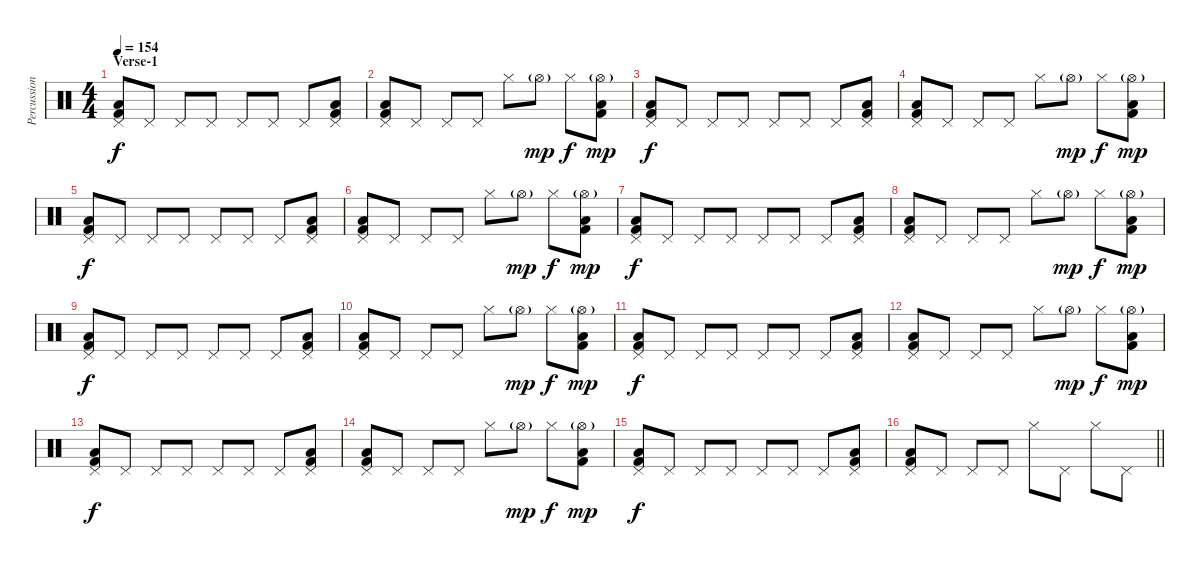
\track ("Percussion" "Percussion") {instrument percussion}
\staff {score}
\articulation defaults
\ts (4 4)
\section ("" "Verse-1")
\tempo 154
\clef neutral
\ks c
("Pedal Hi-Hat (hit)" "Low Floor Tom (hit)" "Kick (hit) 2").8{dy f} "Pedal Hi-Hat (hit)".8 "Pedal Hi-Hat (hit)".8 "Pedal Hi-Hat (hit)".8 "Pedal Hi-Hat (hit)".8 "Pedal Hi-Hat (hit)".8 "Pedal Hi-Hat (hit)".8 ("Pedal Hi-Hat (hit)" "Low Floor Tom (hit)" "Kick (hit) 2").8 |
("Pedal Hi-Hat (hit)" "Low Floor Tom (hit)" "Kick (hit) 2").8 "Pedal Hi-Hat (hit)".8 "Pedal Hi-Hat (hit)".8 "Pedal Hi-Hat (hit)".8 "Hi-Hat (closed)".8 "Hi-Hat (open)"{g}.8{dy mp} "Hi-Hat (closed)".8{dy f} ("Hi-Hat (open)"{g} "Low Floor Tom (hit)" "Kick (hit) 2").8{dy mp} |
("Pedal Hi-Hat (hit)" "Low Floor Tom (hit)" "Kick (hit) 2").8{dy f} "Pedal Hi-Hat (hit)".8 "Pedal Hi-Hat (hit)".8 "Pedal Hi-Hat (hit)".8 "Pedal Hi-Hat (hit)".8 "Pedal Hi-Hat (hit)".8 "Pedal Hi-Hat (hit)".8 ("Pedal Hi-Hat (hit)" "Low Floor Tom (hit)" "Kick (hit) 2").8 |
("Pedal Hi-Hat (hit)" "Low Floor Tom (hit)" "Kick (hit) 2").8 "Pedal Hi-Hat (hit)".8 "Pedal Hi-Hat (hit)".8 "Pedal Hi-Hat (hit)".8 "Hi-Hat (closed)".8 "Hi-Hat (open)"{g}.8{dy mp} "Hi-Hat (closed)".8{dy f} ("Hi-Hat (open)"{g} "Low Floor Tom (hit)" "Kick (hit) 2").8{dy mp} |
("Pedal Hi-Hat (hit)" "Low Floor Tom (hit)" "Kick (hit) 2").8{dy f} "Pedal Hi-Hat (hit)".8 "Pedal Hi-Hat (hit)".8 "Pedal Hi-Hat (hit)".8 "Pedal Hi-Hat (hit)".8 "Pedal Hi-Hat (hit)".8 "Pedal Hi-Hat (hit)".8 ("Pedal Hi-Hat (hit)" "Low Floor Tom (hit)" "Kick (hit) 2").8 |
("Pedal Hi-Hat (hit)" "Low Floor Tom (hit)" "Kick (hit) 2").8 "Pedal Hi-Hat (hit)".8 "Pedal Hi-Hat (hit)".8 "Pedal Hi-Hat (hit)".8 "Hi-Hat (closed)".8 "Hi-Hat (open)"{g}.8{dy mp} "Hi-Hat (closed)".8{dy f} ("Hi-Hat (open)"{g} "Low Floor Tom (hit)" "Kick (hit) 2").8{dy mp} |
("Pedal Hi-Hat (hit)" "Low Floor Tom (hit)" "Kick (hit) 2").8{dy f} "Pedal Hi-Hat (hit)".8 "Pedal Hi-Hat (hit)".8 "Pedal Hi-Hat (hit)".8 "Pedal Hi-Hat (hit)".8 "Pedal Hi-Hat (hit)".8 "Pedal Hi-Hat (hit)".8 ("Pedal Hi-Hat (hit)" "Low Floor Tom (hit)" "Kick (hit) 2").8 |
("Pedal Hi-Hat (hit)" "Low Floor Tom (hit)" "Kick (hit) 2").8 "Pedal Hi-Hat (hit)".8 "Pedal Hi-Hat (hit)".8 "Pedal Hi-Hat (hit)".8 "Hi-Hat (closed)".8 "Hi-Hat (open)"{g}.8{dy mp} "Hi-Hat (closed)".8{dy f} ("Hi-Hat (open)"{g} "Low Floor Tom (hit)" "Kick (hit) 2").8{dy mp} |
("Pedal Hi-Hat (hit)" "Low Floor Tom (hit)" "Kick (hit) 2").8{dy f} "Pedal Hi-Hat (hit)".8 "Pedal Hi-Hat (hit)".8 "Pedal Hi-Hat (hit)".8 "Pedal Hi-Hat (hit)".8 "Pedal Hi-Hat (hit)".8 "Pedal Hi-Hat (hit)".8 ("Pedal Hi-Hat (hit)" "Low Floor Tom (hit)" "Kick (hit) 2").8 |
("Pedal Hi-Hat (hit)" "Low Floor Tom (hit)" "Kick (hit) 2").8 "Pedal Hi-Hat (hit)".8 "Pedal Hi-Hat (hit)".8 "Pedal Hi-Hat (hit)".8 "Hi-Hat (closed)".8 "Hi-Hat (open)"{g}.8{dy mp} "Hi-Hat (closed)".8{dy f} ("Hi-Hat (open)"{g} "Low Floor Tom (hit)" "Kick (hit) 2").8{dy mp} |
("Pedal Hi-Hat (hit)" "Low Floor Tom (hit)" "Kick (hit) 2").8{dy f} "Pedal Hi-Hat (hit)".8 "Pedal Hi-Hat (hit)".8 "Pedal Hi-Hat (hit)".8 "Pedal Hi-Hat (hit)".8 "Pedal Hi-Hat (hit)".8 "Pedal Hi-Hat (hit)".8 ("Pedal Hi-Hat (hit)" "Low Floor Tom (hit)" "Kick (hit) 2").8 |
("Pedal Hi-Hat (hit)" "Low Floor Tom (hit)" "Kick (hit) 2").8 "Pedal Hi-Hat (hit)".8 "Pedal Hi-Hat (hit)".8 "Pedal Hi-Hat (hit)".8 "Hi-Hat (closed)".8 "Hi-Hat (open)"{g}.8{dy mp} "Hi-Hat (closed)".8{dy f} ("Hi-Hat (open)"{g} "Low Floor Tom (hit)" "Kick (hit) 2").8{dy mp} |
("Pedal Hi-Hat (hit)" "Low Floor Tom (hit)" "Kick (hit) 2").8{dy f} "Pedal Hi-Hat (hit)".8 "Pedal Hi-Hat (hit)".8 "Pedal Hi-Hat (hit)".8 "Pedal Hi-Hat (hit)".8 "Pedal Hi-Hat (hit)".8 "Pedal Hi-Hat (hit)".8 ("Pedal Hi-Hat (hit)" "Low Floor Tom (hit)" "Kick (hit) 2").8 |
("Pedal Hi-Hat (hit)" "Low Floor Tom (hit)" "Kick (hit) 2").8 "Pedal Hi-Hat (hit)".8 "Pedal Hi-Hat (hit)".8 "Pedal Hi-Hat (hit)".8 "Hi-Hat (closed)".8 "Hi-Hat (open)"{g}.8{dy mp} "Hi-Hat (closed)".8{dy f} ("Hi-Hat (open)"{g} "Low Floor Tom (hit)" "Kick (hit) 2").8{dy mp} |
("Pedal Hi-Hat (hit)" "Low Floor Tom (hit)" "Kick (hit) 2").8{dy f} "Pedal Hi-Hat (hit)".8 "Pedal Hi-Hat (hit)".8 "Pedal Hi-Hat (hit)".8 "Pedal Hi-Hat (hit)".8 "Pedal Hi-Hat (hit)".8 "Pedal Hi-Hat (hit)".8 ("Pedal Hi-Hat (hit)" "Low Floor Tom (hit)" "Kick (hit) 2").8 |
\barLineRight lightlight
("Pedal Hi-Hat (hit)" "Low Floor Tom (hit)" "Kick (hit) 2").8 "Pedal Hi-Hat (hit)".8 "Pedal Hi-Hat (hit)".8 "Pedal Hi-Hat (hit)".8 "Hi-Hat (closed)".8 "Pedal Hi-Hat (hit)".8 "Hi-Hat (closed)".8 "Pedal Hi-Hat (hit)".8
